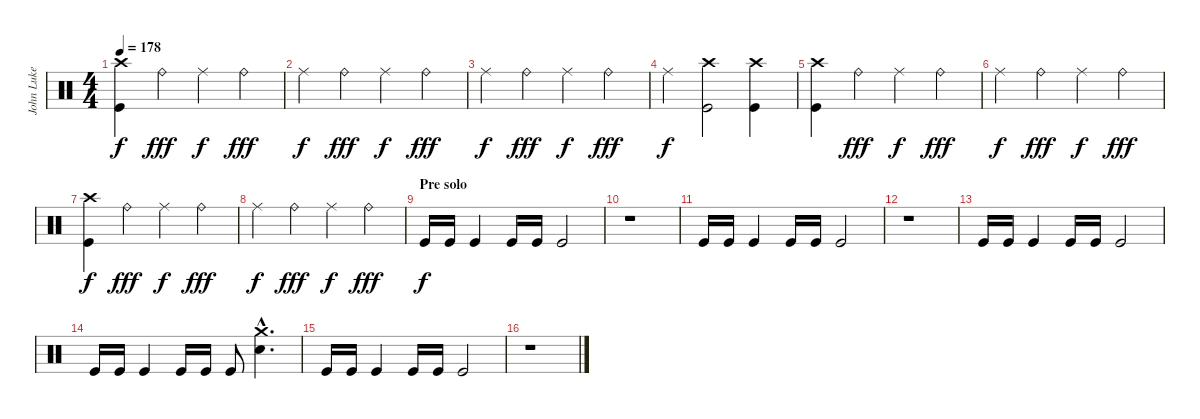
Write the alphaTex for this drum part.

\track ("John Luke (Drums)" "John Luke ") {instrument percussion}
\staff {score}
\articulation defaults
\ts (4 4)
\tempo 178
\clef neutral
\ks c
("Crash high (hit)" "Kick (hit)").4{dy f} "Ride (bell)".4{dy fff} "Ride (middle)".4{dy f} "Ride (bell)".4{dy fff} |
"Ride (middle)".4{dy f} "Ride (bell)".4{dy fff} "Ride (middle)".4{dy f} "Ride (bell)".4{dy fff} |
"Ride (middle)".4{dy f} "Ride (bell)".4{dy fff} "Ride (middle)".4{dy f} "Ride (bell)".4{dy fff} |
"Ride (middle)".4{dy f} ("Crash high (hit)" "Kick (hit)").2 ("Crash high (hit)" "Kick (hit)").4 |
("Crash high (hit)" "Kick (hit)").4 "Ride (bell)".4{dy fff} "Ride (middle)".4{dy f} "Ride (bell)".4{dy fff} |
"Ride (middle)".4{dy f} "Ride (bell)".4{dy fff} "Ride (middle)".4{dy f} "Ride (bell)".4{dy fff} |
("Crash high (hit)" "Kick (hit)").4{dy f} "Ride (bell)".4{dy fff} "Ride (middle)".4{dy f} "Ride (bell)".4{dy fff} |
"Ride (middle)".4{dy f} "Ride (bell)".4{dy fff} "Ride (middle)".4{dy f} "Ride (bell)".4{dy fff} |
\section ("" "Pre solo")
"Kick (hit)".16{dy f} "Kick (hit)".16 "Kick (hit)".4 "Kick (hit)".16 "Kick (hit)".16 "Kick (hit)".2 |
r.1 |
"Kick (hit)".16 "Kick (hit)".16 "Kick (hit)".4 "Kick (hit)".16 "Kick (hit)".16 "Kick (hit)".2 |
r.1 |
"Kick (hit)".16 "Kick (hit)".16 "Kick (hit)".4 "Kick (hit)".16 "Kick (hit)".16 "Kick (hit)".2 |
"Kick (hit)".16 "Kick (hit)".16 "Kick (hit)".4 "Kick (hit)".16 "Kick (hit)".16 "Kick (hit)".8 ("Crash medium (hit)"{hac} "Electric Snare (hit)"{hac}).4{d} |
"Kick (hit)".16 "Kick (hit)".16 "Kick (hit)".4 "Kick (hit)".16 "Kick (hit)".16 "Kick (hit)".2 |
r.1
